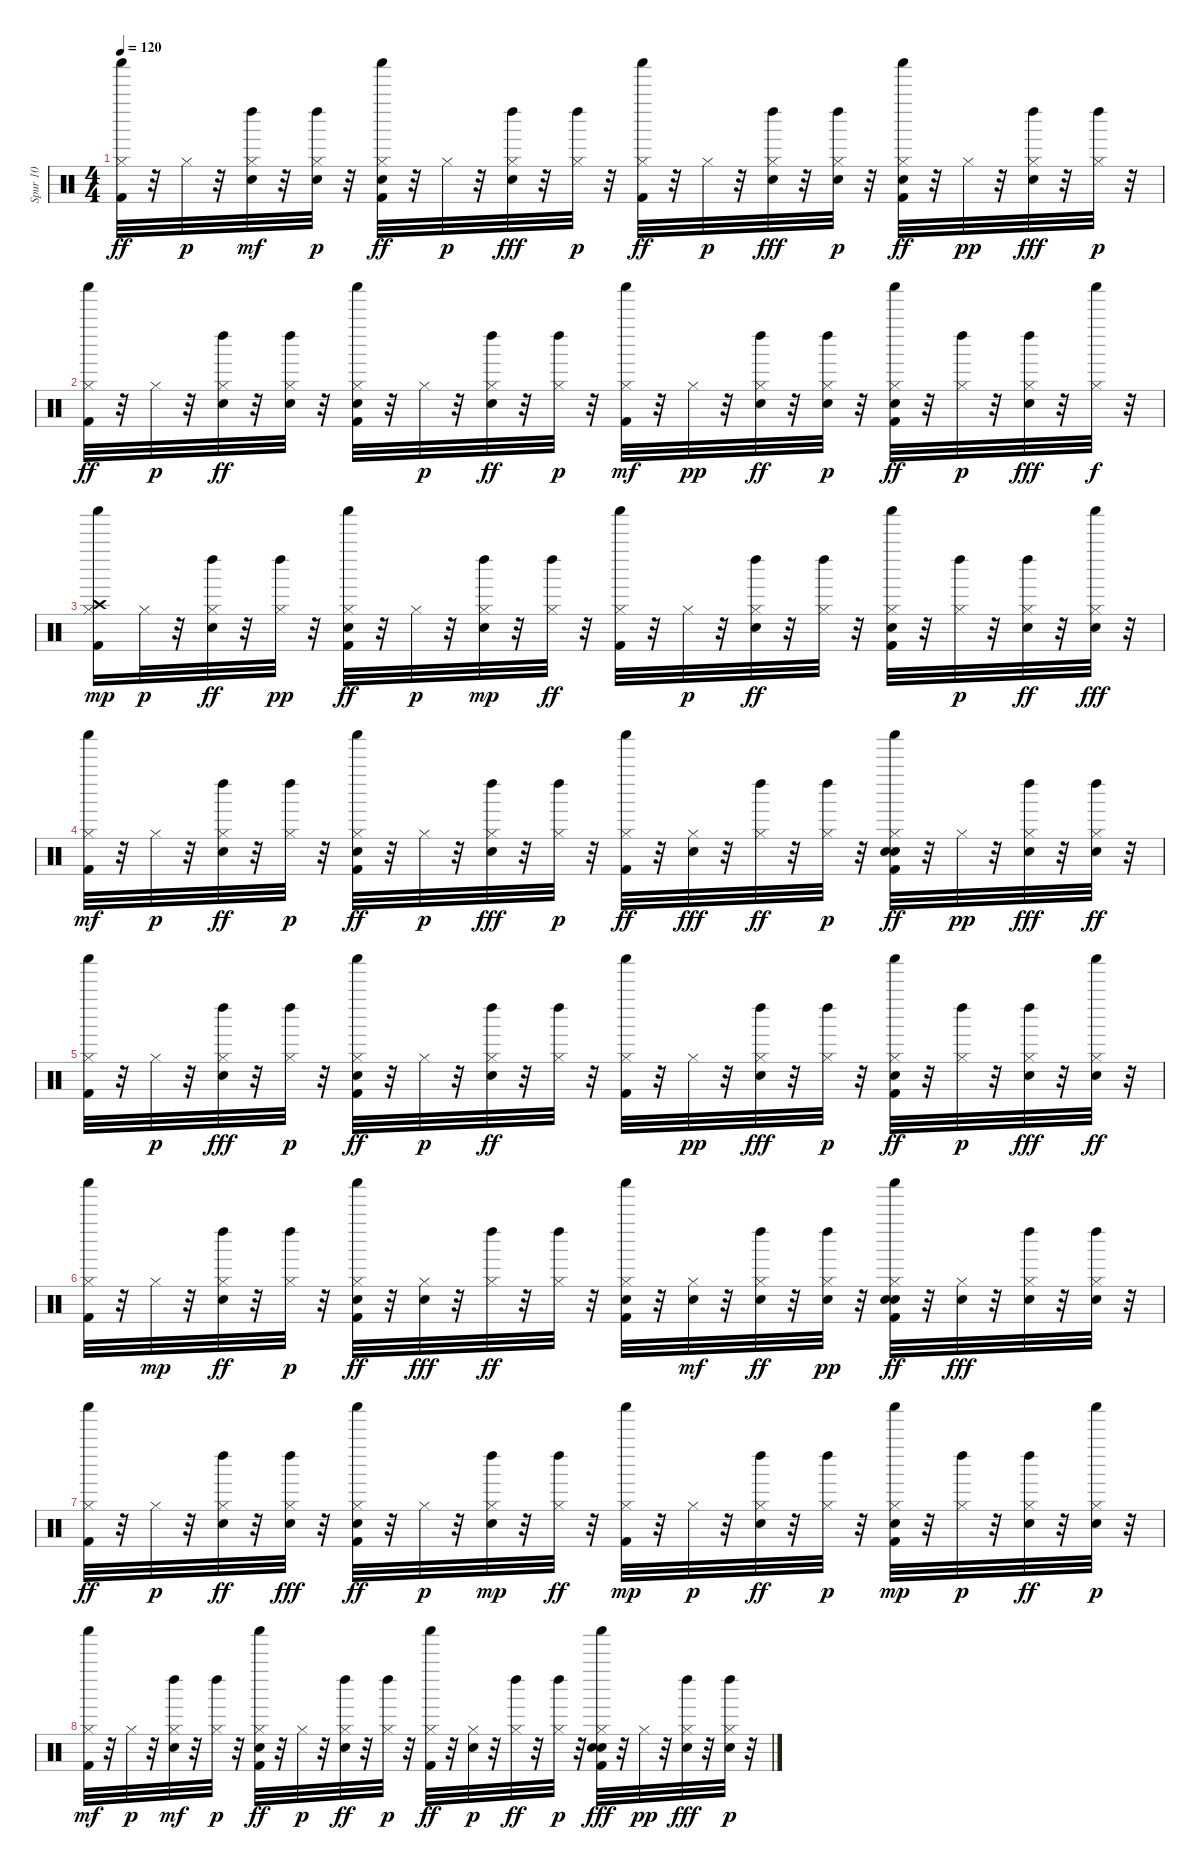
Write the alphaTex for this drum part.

\track ("Spur 10" "Spur 10") {instrument percussion}
\staff {score}
\articulation defaults
\ts (4 4)
\tempo 120
\clef neutral
\ks c
("Shaker (hit)" "Hi-Hat (closed)" "Kick (hit) 2").32{dy ff} r.32 "Hi-Hat (closed)".32{dy p} r.32 ("Electric Snare (hit)" "Hi-Hat (closed)" "Left Maraca (hit)").32{dy mf} r.32 ("Left Maraca (hit)" "Electric Snare (hit)" "Hi-Hat (closed)").32{dy p} r.32 ("Kick (hit) 2" "Shaker (hit)" "Snare (hit) 2" "Hi-Hat (closed)").32{dy ff} r.32 "Hi-Hat (closed)".32{dy p} r.32 ("Hi-Hat (closed)" "Left Maraca (hit)" "Electric Snare (hit)").32{dy fff} r.32 ("Left Maraca (hit)" "Hi-Hat (closed)").32{dy p} r.32 ("Shaker (hit)" "Kick (hit) 2" "Hi-Hat (closed)").32{dy ff} r.32 "Hi-Hat (closed)".32{dy p} r.32 ("Hi-Hat (closed)" "Left Maraca (hit)" "Electric Snare (hit)").32{dy fff} r.32 ("Electric Snare (hit)" "Left Maraca (hit)" "Hi-Hat (closed)").32{dy p} r.32 ("Hi-Hat (closed)" "Kick (hit) 2" "Snare (hit) 2" "Shaker (hit)").32{dy ff} r.32 "Hi-Hat (closed)".32{dy pp} r.32 ("Left Maraca (hit)" "Hi-Hat (closed)" "Electric Snare (hit)").32{dy fff} r.32 ("Left Maraca (hit)" "Hi-Hat (closed)").32{dy p} r.32 |
("Shaker (hit)" "Hi-Hat (closed)" "Kick (hit) 2").32{dy ff} r.32 "Hi-Hat (closed)".32{dy p} r.32 ("Electric Snare (hit)" "Hi-Hat (closed)" "Left Maraca (hit)").32{dy ff} r.32 ("Hi-Hat (closed)" "Left Maraca (hit)" "Electric Snare (hit)").32 r.32 ("Shaker (hit)" "Snare (hit) 2" "Kick (hit) 2" "Hi-Hat (closed)").32 r.32 "Hi-Hat (closed)".32{dy p} r.32 ("Left Maraca (hit)" "Electric Snare (hit)" "Hi-Hat (closed)").32{dy ff} r.32 ("Left Maraca (hit)" "Hi-Hat (closed)").32{dy p} r.32 ("Kick (hit) 2" "Shaker (hit)" "Hi-Hat (closed)").32{dy mf} r.32 "Hi-Hat (closed)".32{dy pp} r.32 ("Electric Snare (hit)" "Left Maraca (hit)" "Hi-Hat (closed)").32{dy ff} r.32 ("Left Maraca (hit)" "Electric Snare (hit)" "Hi-Hat (closed)").32{dy p} r.32 ("Hi-Hat (closed)" "Shaker (hit)" "Snare (hit) 2" "Kick (hit) 2").32{dy ff} r.32 ("Left Maraca (hit)" "Hi-Hat (closed)").32{dy p} r.32 ("Hi-Hat (closed)" "Left Maraca (hit)" "Electric Snare (hit)").32{dy fff} r.32 ("Hi-Hat (closed)" "Shaker (hit)").32{dy f} r.32 |
("Kick (hit) 2" "Shaker (hit)" "Crash high (hit)" "Hi-Hat (closed)").16{dy mp} "Hi-Hat (closed)".32{dy p} r.32 ("Electric Snare (hit)" "Left Maraca (hit)" "Hi-Hat (closed)").32{dy ff} r.32 ("Left Maraca (hit)" "Hi-Hat (closed)").32{dy pp} r.32 ("Kick (hit) 2" "Shaker (hit)" "Hi-Hat (closed)" "Snare (hit) 2").32{dy ff} r.32 "Hi-Hat (closed)".32{dy p} r.32 ("Electric Snare (hit)" "Hi-Hat (closed)" "Left Maraca (hit)").32{dy mp} r.32 ("Hi-Hat (closed)" "Left Maraca (hit)").32{dy ff} r.32 ("Hi-Hat (closed)" "Shaker (hit)" "Kick (hit) 2").32 r.32 "Hi-Hat (closed)".32{dy p} r.32 ("Electric Snare (hit)" "Hi-Hat (closed)" "Left Maraca (hit)").32{dy ff} r.32 ("Hi-Hat (closed)" "Left Maraca (hit)").32 r.32 ("Hi-Hat (closed)" "Kick (hit) 2" "Shaker (hit)" "Snare (hit) 2").32 r.32 ("Hi-Hat (closed)" "Left Maraca (hit)").32{dy p} r.32 ("Electric Snare (hit)" "Left Maraca (hit)" "Hi-Hat (closed)").32{dy ff} r.32 ("Hi-Hat (closed)" "Shaker (hit)" "Electric Snare (hit)").32{dy fff} r.32 |
("Shaker (hit)" "Kick (hit) 2" "Hi-Hat (closed)").32{dy mf} r.32 "Hi-Hat (closed)".32{dy p} r.32 ("Left Maraca (hit)" "Electric Snare (hit)" "Hi-Hat (closed)").32{dy ff} r.32 ("Left Maraca (hit)" "Hi-Hat (closed)").32{dy p} r.32 ("Snare (hit) 2" "Shaker (hit)" "Kick (hit) 2" "Hi-Hat (closed)").32{dy ff} r.32 "Hi-Hat (closed)".32{dy p} r.32 ("Left Maraca (hit)" "Hi-Hat (closed)" "Electric Snare (hit)").32{dy fff} r.32 ("Left Maraca (hit)" "Hi-Hat (closed)").32{dy p} r.32 ("Kick (hit) 2" "Shaker (hit)" "Hi-Hat (closed)").32{dy ff} r.32 ("Hi-Hat (closed)" "Electric Snare (hit)").32{dy fff} r.32 ("Left Maraca (hit)" "Hi-Hat (closed)").32{dy ff} r.32 ("Left Maraca (hit)" "Hi-Hat (closed)").32{dy p} r.32 ("Shaker (hit)" "Electric Snare (hit)" "Hi-Hat (closed)" "Kick (hit) 2" "Snare (hit) 2").32{dy ff} r.32 "Hi-Hat (closed)".32{dy pp} r.32 ("Hi-Hat (closed)" "Left Maraca (hit)" "Electric Snare (hit)").32{dy fff} r.32 ("Hi-Hat (closed)" "Electric Snare (hit)" "Left Maraca (hit)").32{dy ff} r.32 |
("Hi-Hat (closed)" "Kick (hit) 2" "Shaker (hit)").32 r.32 "Hi-Hat (closed)".32{dy p} r.32 ("Hi-Hat (closed)" "Electric Snare (hit)" "Left Maraca (hit)").32{dy fff} r.32 ("Left Maraca (hit)" "Hi-Hat (closed)").32{dy p} r.32 ("Hi-Hat (closed)" "Shaker (hit)" "Snare (hit) 2" "Kick (hit) 2").32{dy ff} r.32 "Hi-Hat (closed)".32{dy p} r.32 ("Electric Snare (hit)" "Left Maraca (hit)" "Hi-Hat (closed)").32{dy ff} r.32 ("Hi-Hat (closed)" "Left Maraca (hit)").32 r.32 ("Shaker (hit)" "Hi-Hat (closed)" "Kick (hit) 2").32 r.32 "Hi-Hat (closed)".32{dy pp} r.32 ("Hi-Hat (closed)" "Electric Snare (hit)" "Left Maraca (hit)").32{dy fff} r.32 ("Left Maraca (hit)" "Hi-Hat (closed)").32{dy p} r.32 ("Kick (hit) 2" "Shaker (hit)" "Hi-Hat (closed)" "Snare (hit) 2").32{dy ff} r.32 ("Left Maraca (hit)" "Hi-Hat (closed)").32{dy p} r.32 ("Hi-Hat (closed)" "Left Maraca (hit)" "Electric Snare (hit)").32{dy fff} r.32 ("Shaker (hit)" "Electric Snare (hit)" "Hi-Hat (closed)").32{dy ff} r.32 |
("Shaker (hit)" "Kick (hit) 2" "Hi-Hat (closed)").32 r.32 "Hi-Hat (closed)".32{dy mp} r.32 ("Electric Snare (hit)" "Left Maraca (hit)" "Hi-Hat (closed)").32{dy ff} r.32 ("Hi-Hat (closed)" "Left Maraca (hit)").32{dy p} r.32 ("Kick (hit) 2" "Hi-Hat (closed)" "Snare (hit) 2" "Shaker (hit)").32{dy ff} r.32 ("Hi-Hat (closed)" "Electric Snare (hit)").32{dy fff} r.32 ("Left Maraca (hit)" "Hi-Hat (closed)").32{dy ff} r.32 ("Hi-Hat (closed)" "Left Maraca (hit)").32 r.32 ("Hi-Hat (closed)" "Electric Snare (hit)" "Shaker (hit)" "Kick (hit) 2").32 r.32 ("Hi-Hat (closed)" "Electric Snare (hit)").32{dy mf} r.32 ("Left Maraca (hit)" "Electric Snare (hit)" "Hi-Hat (closed)").32{dy ff} r.32 ("Hi-Hat (closed)" "Left Maraca (hit)" "Electric Snare (hit)").32{dy pp} r.32 ("Electric Snare (hit)" "Hi-Hat (closed)" "Snare (hit) 2" "Shaker (hit)" "Kick (hit) 2").32{dy ff} r.32 ("Hi-Hat (closed)" "Electric Snare (hit)").32{dy fff} r.32 ("Hi-Hat (closed)" "Left Maraca (hit)" "Electric Snare (hit)").32 r.32 ("Hi-Hat (closed)" "Left Maraca (hit)" "Electric Snare (hit)").32 r.32 |
("Hi-Hat (closed)" "Kick (hit) 2" "Shaker (hit)").32{dy ff} r.32 "Hi-Hat (closed)".32{dy p} r.32 ("Electric Snare (hit)" "Left Maraca (hit)" "Hi-Hat (closed)").32{dy ff} r.32 ("Hi-Hat (closed)" "Left Maraca (hit)" "Electric Snare (hit)").32{dy fff} r.32 ("Snare (hit) 2" "Hi-Hat (closed)" "Kick (hit) 2" "Shaker (hit)").32{dy ff} r.32 "Hi-Hat (closed)".32{dy p} r.32 ("Hi-Hat (closed)" "Electric Snare (hit)" "Left Maraca (hit)").32{dy mp} r.32 ("Hi-Hat (closed)" "Left Maraca (hit)").32{dy ff} r.32 ("Shaker (hit)" "Kick (hit) 2" "Hi-Hat (closed)").32{dy mp} r.32 "Hi-Hat (closed)".32{dy p} r.32 ("Left Maraca (hit)" "Electric Snare (hit)" "Hi-Hat (closed)").32{dy ff} r.32 ("Left Maraca (hit)" "Hi-Hat (closed)").32{dy p} r.32 ("Kick (hit) 2" "Snare (hit) 2" "Hi-Hat (closed)" "Shaker (hit)").32{dy mp} r.32 ("Left Maraca (hit)" "Hi-Hat (closed)").32{dy p} r.32 ("Hi-Hat (closed)" "Electric Snare (hit)" "Left Maraca (hit)").32{dy ff} r.32 ("Shaker (hit)" "Electric Snare (hit)" "Hi-Hat (closed)").32{dy p} r.32 |
("Kick (hit) 2" "Hi-Hat (closed)" "Shaker (hit)").32{dy mf} r.32 "Hi-Hat (closed)".32{dy p} r.32 ("Electric Snare (hit)" "Hi-Hat (closed)" "Left Maraca (hit)").32{dy mf} r.32 ("Left Maraca (hit)" "Hi-Hat (closed)").32{dy p} r.32 ("Kick (hit) 2" "Hi-Hat (closed)" "Shaker (hit)" "Snare (hit) 2").32{dy ff} r.32 "Hi-Hat (closed)".32{dy p} r.32 ("Electric Snare (hit)" "Left Maraca (hit)" "Hi-Hat (closed)").32{dy ff} r.32 ("Left Maraca (hit)" "Hi-Hat (closed)").32{dy p} r.32 ("Shaker (hit)" "Kick (hit) 2" "Hi-Hat (closed)").32{dy ff} r.32 ("Electric Snare (hit)" "Hi-Hat (closed)").32{dy p} r.32 ("Hi-Hat (closed)" "Left Maraca (hit)").32{dy ff} r.32 ("Left Maraca (hit)" "Hi-Hat (closed)").32{dy p} r.32 ("Kick (hit) 2" "Hi-Hat (closed)" "Snare (hit) 2" "Electric Snare (hit)" "Shaker (hit)").32{dy fff} r.32 "Hi-Hat (closed)".32{dy pp} r.32 ("Left Maraca (hit)" "Hi-Hat (closed)" "Electric Snare (hit)").32{dy fff} r.32 ("Left Maraca (hit)" "Electric Snare (hit)" "Hi-Hat (closed)").32{dy p} r.32
